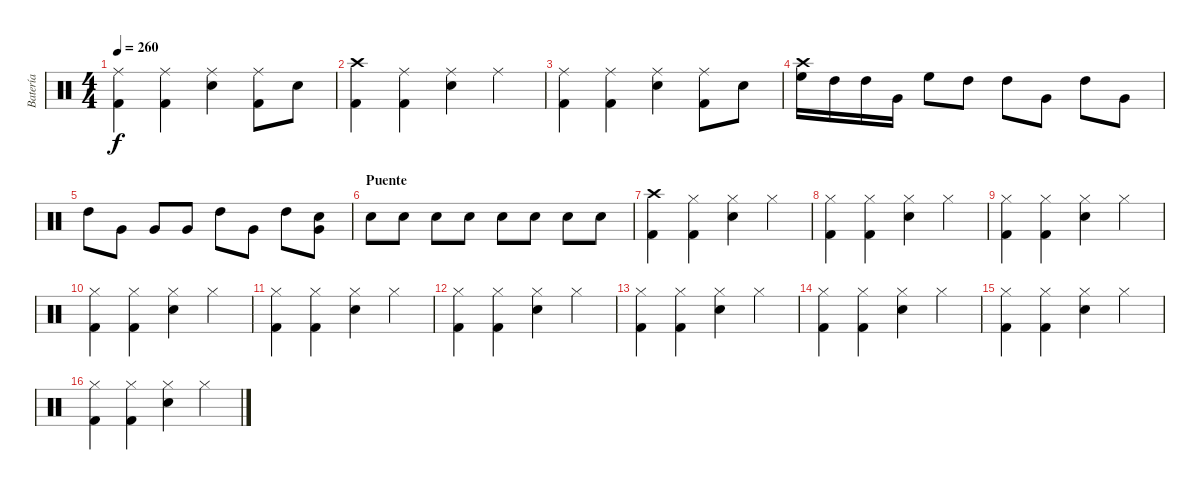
\track ("Batería" "Batería") {instrument percussion}
\staff {score}
\articulation defaults
\ts (4 4)
\tempo 260
\clef neutral
\ks c
("Kick (hit) 2" "Ride (middle)").4{dy f} ("Kick (hit) 2" "Ride (middle)").4 ("Snare (hit) 2" "Ride (middle)").4 ("Kick (hit) 2" "Ride (middle)").8 "Snare (hit) 2".8 |
("Kick (hit) 2" "Crash high (hit)").4 ("Kick (hit) 2" "Ride (middle)").4 ("Snare (hit) 2" "Ride (middle)").4 "Ride (middle)".4 |
("Kick (hit) 2" "Ride (middle)").4 ("Kick (hit) 2" "Ride (middle)").4 ("Snare (hit) 2" "Ride (middle)").4 ("Kick (hit) 2" "Ride (middle)").8 "Snare (hit) 2".8 |
("Crash high (hit)" "High Floor Tom (hit)").16 "High Tom (hit)".16 "High Tom (hit)".16 "Very Low Tom (hit)".16 "High Floor Tom (hit)".8 "High Tom (hit)".8 "High Tom (hit)".8 "Very Low Tom (hit)".8 "High Tom (hit)".8 "Very Low Tom (hit)".8 |
"High Tom (hit)".8 "Very Low Tom (hit)".8 "Very Low Tom (hit)".8 "Very Low Tom (hit)".8 "High Tom (hit)".8 "Very Low Tom (hit)".8 "High Tom (hit)".8 ("Snare (hit)" "Very Low Tom (hit)").8 |
\section ("" "Puente")
"Snare (hit) 2".8 "Snare (hit) 2".8 "Snare (hit) 2".8 "Snare (hit) 2".8 "Snare (hit) 2".8 "Snare (hit) 2".8 "Snare (hit) 2".8 "Snare (hit) 2".8 |
("Kick (hit) 2" "Crash high (hit)").4 ("Kick (hit) 2" "Hi-Hat (closed)").4 ("Snare (hit) 2" "Hi-Hat (closed)").4 "Hi-Hat (closed)".4 |
("Kick (hit) 2" "Hi-Hat (closed)").4 ("Kick (hit) 2" "Hi-Hat (closed)").4 ("Snare (hit) 2" "Hi-Hat (closed)").4 "Hi-Hat (closed)".4 |
("Kick (hit) 2" "Hi-Hat (closed)").4 ("Kick (hit) 2" "Hi-Hat (closed)").4 ("Snare (hit) 2" "Hi-Hat (closed)").4 "Hi-Hat (closed)".4 |
("Kick (hit) 2" "Hi-Hat (closed)").4 ("Kick (hit) 2" "Hi-Hat (closed)").4 ("Snare (hit) 2" "Hi-Hat (closed)").4 "Hi-Hat (closed)".4 |
("Kick (hit) 2" "Hi-Hat (closed)").4 ("Kick (hit) 2" "Hi-Hat (closed)").4 ("Snare (hit) 2" "Hi-Hat (closed)").4 "Hi-Hat (closed)".4 |
("Kick (hit) 2" "Hi-Hat (closed)").4 ("Kick (hit) 2" "Hi-Hat (closed)").4 ("Snare (hit) 2" "Hi-Hat (closed)").4 "Hi-Hat (closed)".4 |
("Kick (hit) 2" "Hi-Hat (closed)").4 ("Kick (hit) 2" "Hi-Hat (closed)").4 ("Snare (hit) 2" "Hi-Hat (closed)").4 "Hi-Hat (closed)".4 |
("Kick (hit) 2" "Hi-Hat (closed)").4 ("Kick (hit) 2" "Hi-Hat (closed)").4 ("Snare (hit) 2" "Hi-Hat (closed)").4 "Hi-Hat (closed)".4 |
("Kick (hit) 2" "Hi-Hat (closed)").4 ("Kick (hit) 2" "Hi-Hat (closed)").4 ("Snare (hit) 2" "Hi-Hat (closed)").4 "Hi-Hat (closed)".4 |
("Kick (hit) 2" "Hi-Hat (closed)").4 ("Kick (hit) 2" "Hi-Hat (closed)").4 ("Snare (hit) 2" "Hi-Hat (closed)").4 "Hi-Hat (closed)".4
